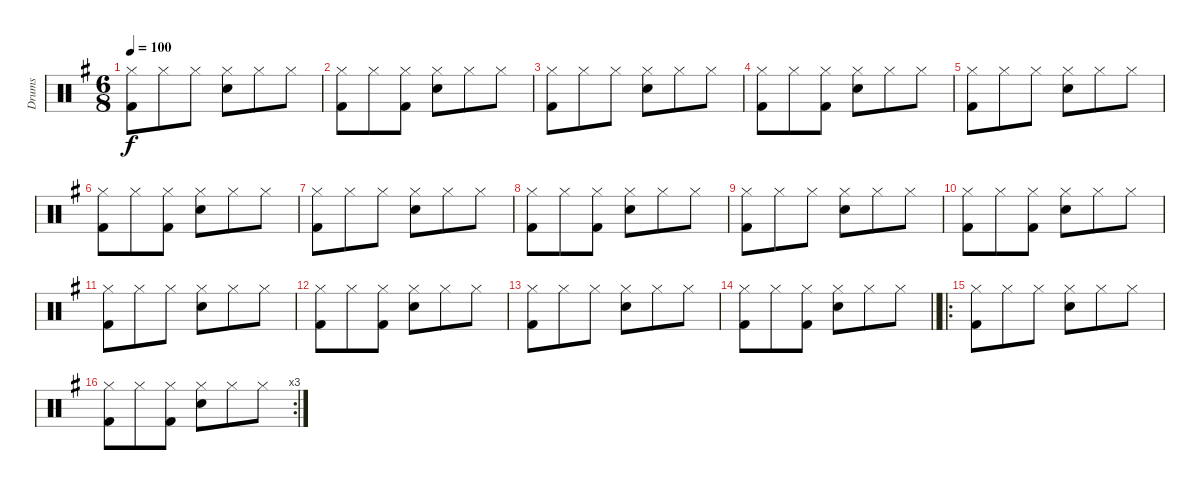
\track ("Drums" "Drums") {instrument percussion}
\staff {score}
\articulation defaults
\ts (6 8)
\tempo 100
\clef neutral
\ks g
("Hi-Hat (closed)" "Kick (hit) 2").8{dy f} "Hi-Hat (closed)".8 "Hi-Hat (closed)".8 ("Hi-Hat (closed)" "Electric Snare (hit)").8 "Hi-Hat (closed)".8 "Hi-Hat (closed)".8 |
("Hi-Hat (closed)" "Kick (hit) 2").8 "Hi-Hat (closed)".8 ("Hi-Hat (closed)" "Kick (hit) 2").8 ("Hi-Hat (closed)" "Electric Snare (hit)").8 "Hi-Hat (closed)".8 "Hi-Hat (closed)".8 |
("Hi-Hat (closed)" "Kick (hit) 2").8 "Hi-Hat (closed)".8 "Hi-Hat (closed)".8 ("Hi-Hat (closed)" "Electric Snare (hit)").8 "Hi-Hat (closed)".8 "Hi-Hat (closed)".8 |
("Hi-Hat (closed)" "Kick (hit) 2").8 "Hi-Hat (closed)".8 ("Hi-Hat (closed)" "Kick (hit) 2").8 ("Hi-Hat (closed)" "Electric Snare (hit)").8 "Hi-Hat (closed)".8 "Hi-Hat (closed)".8 |
("Hi-Hat (closed)" "Kick (hit) 2").8 "Hi-Hat (closed)".8 "Hi-Hat (closed)".8 ("Hi-Hat (closed)" "Electric Snare (hit)").8 "Hi-Hat (closed)".8 "Hi-Hat (closed)".8 |
("Hi-Hat (closed)" "Kick (hit) 2").8 "Hi-Hat (closed)".8 ("Hi-Hat (closed)" "Kick (hit) 2").8 ("Hi-Hat (closed)" "Electric Snare (hit)").8 "Hi-Hat (closed)".8 "Hi-Hat (closed)".8 |
("Hi-Hat (closed)" "Kick (hit) 2").8 "Hi-Hat (closed)".8 "Hi-Hat (closed)".8 ("Hi-Hat (closed)" "Electric Snare (hit)").8 "Hi-Hat (closed)".8 "Hi-Hat (closed)".8 |
("Hi-Hat (closed)" "Kick (hit) 2").8 "Hi-Hat (closed)".8 ("Hi-Hat (closed)" "Kick (hit) 2").8 ("Hi-Hat (closed)" "Electric Snare (hit)").8 "Hi-Hat (closed)".8 "Hi-Hat (closed)".8 |
("Hi-Hat (closed)" "Kick (hit) 2").8 "Hi-Hat (closed)".8 "Hi-Hat (closed)".8 ("Hi-Hat (closed)" "Electric Snare (hit)").8 "Hi-Hat (closed)".8 "Hi-Hat (closed)".8 |
("Hi-Hat (closed)" "Kick (hit) 2").8 "Hi-Hat (closed)".8 ("Hi-Hat (closed)" "Kick (hit) 2").8 ("Hi-Hat (closed)" "Electric Snare (hit)").8 "Hi-Hat (closed)".8 "Hi-Hat (closed)".8 |
("Hi-Hat (closed)" "Kick (hit) 2").8 "Hi-Hat (closed)".8 "Hi-Hat (closed)".8 ("Hi-Hat (closed)" "Electric Snare (hit)").8 "Hi-Hat (closed)".8 "Hi-Hat (closed)".8 |
("Hi-Hat (closed)" "Kick (hit) 2").8 "Hi-Hat (closed)".8 ("Hi-Hat (closed)" "Kick (hit) 2").8 ("Hi-Hat (closed)" "Electric Snare (hit)").8 "Hi-Hat (closed)".8 "Hi-Hat (closed)".8 |
("Hi-Hat (closed)" "Kick (hit) 2").8 "Hi-Hat (closed)".8 "Hi-Hat (closed)".8 ("Hi-Hat (closed)" "Electric Snare (hit)").8 "Hi-Hat (closed)".8 "Hi-Hat (closed)".8 |
\barLineRight lightlight
("Hi-Hat (closed)" "Kick (hit) 2").8 "Hi-Hat (closed)".8 ("Hi-Hat (closed)" "Kick (hit) 2").8 ("Hi-Hat (closed)" "Electric Snare (hit)").8 "Hi-Hat (closed)".8 "Hi-Hat (closed)".8 |
\ro
("Hi-Hat (closed)" "Kick (hit) 2").8 "Hi-Hat (closed)".8 "Hi-Hat (closed)".8 ("Hi-Hat (closed)" "Electric Snare (hit)").8 "Hi-Hat (closed)".8 "Hi-Hat (closed)".8 |
\rc 3
("Hi-Hat (closed)" "Kick (hit) 2").8 "Hi-Hat (closed)".8 ("Hi-Hat (closed)" "Kick (hit) 2").8 ("Hi-Hat (closed)" "Electric Snare (hit)").8 "Hi-Hat (closed)".8 "Hi-Hat (closed)".8
